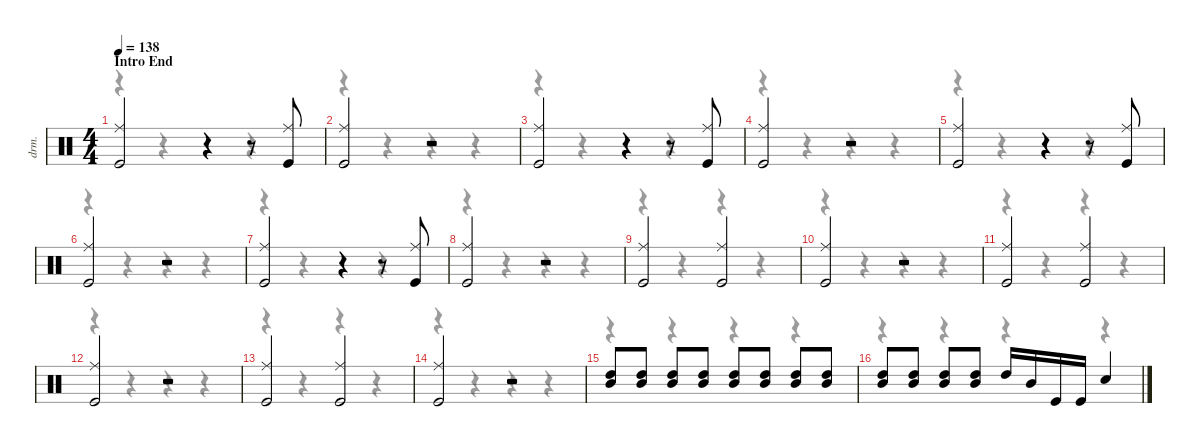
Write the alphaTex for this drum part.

\defaultSystemsLayout 4
\hideDynamics
\bracketExtendMode nobrackets
\track ("Drumkit" "drm.") {instrument percussion}
\staff {score}
\articulation defaults
\voice
\ts (4 4)
\section ("" "Intro End")
\tempo 138
\clef neutral
\ks c
("Kick (hit)" "Ride (middle)").2{dy mp} r.4 r.8 ("Kick (hit)" "Ride (middle)").8 |
("Kick (hit)" "Ride (middle)").2 r.2 |
("Kick (hit)" "Ride (middle)").2 r.4 r.8 ("Kick (hit)" "Ride (middle)").8 |
("Kick (hit)" "Ride (middle)").2 r.2 |
("Kick (hit)" "Ride (middle)").2 r.4 r.8 ("Kick (hit)" "Ride (middle)").8 |
("Kick (hit)" "Ride (middle)").2 r.2 |
("Kick (hit)" "Ride (middle)").2 r.4 r.8 ("Kick (hit)" "Ride (middle)").8 |
("Kick (hit)" "Ride (middle)").2 r.2 |
("Kick (hit)" "Ride (middle)").2 ("Kick (hit)" "Ride (middle)").2 |
("Kick (hit)" "Ride (middle)").2 r.2 |
("Kick (hit)" "Ride (middle)").2 ("Kick (hit)" "Ride (middle)").2 |
("Kick (hit)" "Ride (middle)").2 r.2 |
("Kick (hit)" "Ride (middle)").2 ("Kick (hit)" "Ride (middle)").2 |
("Kick (hit)" "Ride (middle)").2 r.2 |
("High Tom (hit)" "Mid Tom (hit)").8{dy p} ("Mid Tom (hit)" "High Tom (hit)").8 ("Mid Tom (hit)" "High Tom (hit)").8 ("Mid Tom (hit)" "High Tom (hit)").8{dy mp} ("Mid Tom (hit)" "High Tom (hit)").8 ("Mid Tom (hit)" "High Tom (hit)").8 ("Mid Tom (hit)" "High Tom (hit)").8 ("Mid Tom (hit)" "High Tom (hit)").8{dy mf} |
("Mid Tom (hit)" "High Tom (hit)").8 ("Mid Tom (hit)" "High Tom (hit)").8 ("Mid Tom (hit)" "High Tom (hit)").8{dy f} ("Mid Tom (hit)" "High Tom (hit)").8 "High Tom (hit)".16 "Mid Tom (hit)".16 "Kick (hit)".16 "Kick (hit)".16 "Snare (hit) 2".4{dy mf}
\voice
\clef neutral
\ottava regular
\simile none
\ks c
r.4{dy mf} r.4 r.4 r.4 |
r.4 r.4 r.4 r.4 |
r.4 r.4 r.4 r.4 |
r.4 r.4 r.4 r.4 |
r.4 r.4 r.4 r.4 |
r.4 r.4 r.4 r.4 |
r.4 r.4 r.4 r.4 |
r.4 r.4 r.4 r.4 |
r.4 r.4 r.4 r.4 |
r.4 r.4 r.4 r.4 |
r.4 r.4 r.4 r.4 |
r.4 r.4 r.4 r.4 |
r.4 r.4 r.4 r.4 |
r.4 r.4 r.4 r.4 |
r.4 r.4 r.4 r.4 |
r.4 r.4 r.4 r.4
